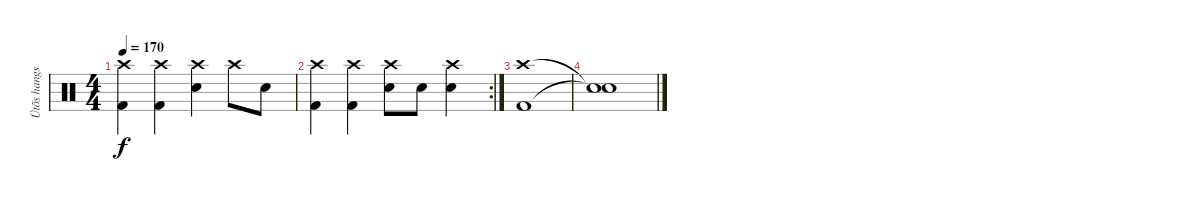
\track ("Ütõs hangszer" "Ütõs hangs") {instrument percussion}
\staff {score}
\articulation defaults
\ts (4 4)
\tempo 170
\clef neutral
\ks c
("Crash high (hit)" "Kick (hit) 2").4{dy f} ("Crash high (hit)" "Kick (hit) 2").4 ("Crash high (hit)" "Electric Snare (hit)").4 "Crash high (hit)".8 "Electric Snare (hit)".8 |
\rc 2
("Crash high (hit)" "Kick (hit) 2").4 ("Crash high (hit)" "Kick (hit) 2").4 ("Crash high (hit)" "Electric Snare (hit)").8 "Electric Snare (hit)".8 ("Crash high (hit)" "Electric Snare (hit)").4 |
("Crash high (hit)" "Kick (hit) 2").1 |
("Snare (hit)"{t} "Snare (hit)"{t}).1
